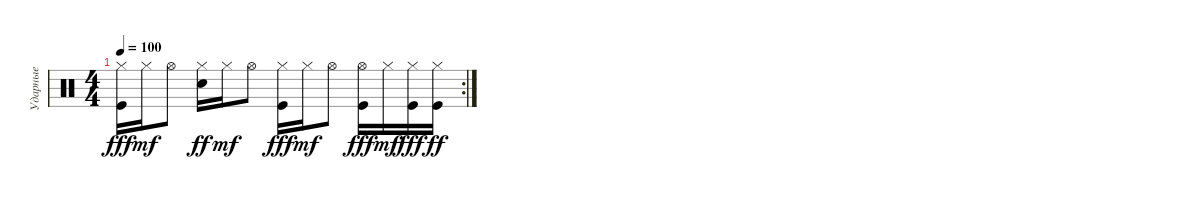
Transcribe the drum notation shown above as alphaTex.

\track ("Ударные" "Ударные") {instrument percussion}
\staff {score}
\articulation defaults
\rc 2
\ts (4 4)
\tempo 100
\clef neutral
\ks c
("Hi-Hat (closed)" "Kick (hit)").16{dy fff} "Hi-Hat (closed)".16{dy mf} "Hi-Hat (open)".8 ("Hi-Hat (closed)" "Electric Snare (hit)").16{dy ff} "Hi-Hat (closed)".16{dy mf} "Hi-Hat (open)".8 ("Hi-Hat (closed)" "Kick (hit)").16{dy fff} "Hi-Hat (closed)".16{dy mf} "Hi-Hat (open)".8 ("Hi-Hat (open)" "Kick (hit)").16{dy fff} "Hi-Hat (closed)".16{dy mf} ("Hi-Hat (closed)" "Kick (hit)").16{dy fff} ("Hi-Hat (closed)" "Kick (hit)").16{dy ff}
